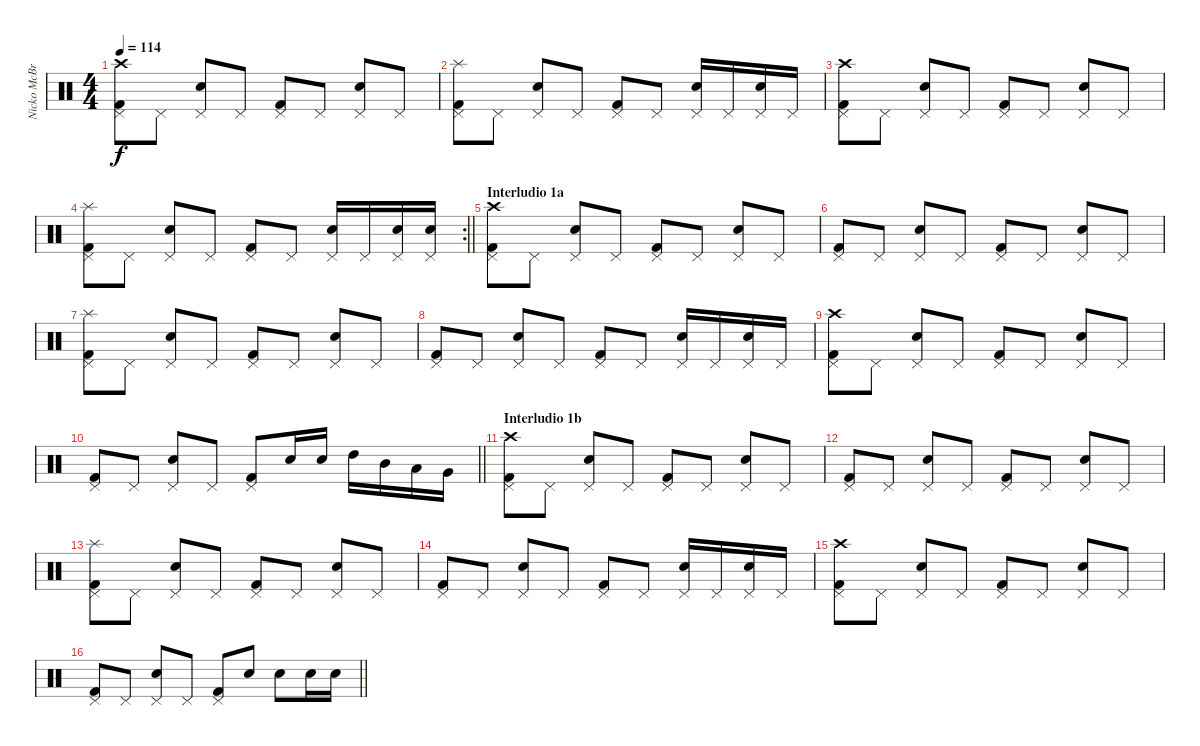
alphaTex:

\track ("Nicko McBrain" "Nicko McBr") {instrument percussion}
\staff {score}
\articulation defaults
\ts (4 4)
\tempo 114
\clef neutral
\ks c
("Kick (hit) 2" "Pedal Hi-Hat (hit)" "Crash high (hit)").8{dy f} "Pedal Hi-Hat (hit)".8 ("Snare (hit) 2" "Pedal Hi-Hat (hit)").8 "Pedal Hi-Hat (hit)".8 ("Kick (hit) 2" "Pedal Hi-Hat (hit)").8 "Pedal Hi-Hat (hit)".8 ("Snare (hit) 2" "Pedal Hi-Hat (hit)").8 "Pedal Hi-Hat (hit)".8 |
("Kick (hit) 2" "Pedal Hi-Hat (hit)" "Splash (hit)").8 "Pedal Hi-Hat (hit)".8 ("Snare (hit) 2" "Pedal Hi-Hat (hit)").8 "Pedal Hi-Hat (hit)".8 ("Kick (hit) 2" "Pedal Hi-Hat (hit)").8 "Pedal Hi-Hat (hit)".8 ("Snare (hit) 2" "Pedal Hi-Hat (hit)").16 "Pedal Hi-Hat (hit)".16 ("Snare (hit) 2" "Pedal Hi-Hat (hit)").16 "Pedal Hi-Hat (hit)".16 |
("Kick (hit) 2" "Pedal Hi-Hat (hit)" "Crash high (hit)").8 "Pedal Hi-Hat (hit)".8 ("Snare (hit) 2" "Pedal Hi-Hat (hit)").8 "Pedal Hi-Hat (hit)".8 ("Kick (hit) 2" "Pedal Hi-Hat (hit)").8 "Pedal Hi-Hat (hit)".8 ("Snare (hit) 2" "Pedal Hi-Hat (hit)").8 "Pedal Hi-Hat (hit)".8 |
\rc 2
\barLineRight lightlight
("Kick (hit) 2" "Pedal Hi-Hat (hit)" "Splash (hit)").8 "Pedal Hi-Hat (hit)".8 ("Snare (hit) 2" "Pedal Hi-Hat (hit)").8 "Pedal Hi-Hat (hit)".8 ("Kick (hit) 2" "Pedal Hi-Hat (hit)").8 "Pedal Hi-Hat (hit)".8 ("Snare (hit) 2" "Pedal Hi-Hat (hit)").16 "Pedal Hi-Hat (hit)".16 ("Snare (hit) 2" "Pedal Hi-Hat (hit)").16 ("Snare (hit) 2" "Pedal Hi-Hat (hit)").16 |
\section ("" "Interludio 1a")
("Kick (hit) 2" "Pedal Hi-Hat (hit)" "Crash high (hit)").8 "Pedal Hi-Hat (hit)".8 ("Snare (hit) 2" "Pedal Hi-Hat (hit)").8 "Pedal Hi-Hat (hit)".8 ("Kick (hit) 2" "Pedal Hi-Hat (hit)").8 "Pedal Hi-Hat (hit)".8 ("Snare (hit) 2" "Pedal Hi-Hat (hit)").8 "Pedal Hi-Hat (hit)".8 |
("Kick (hit) 2" "Pedal Hi-Hat (hit)").8 "Pedal Hi-Hat (hit)".8 ("Snare (hit) 2" "Pedal Hi-Hat (hit)").8 "Pedal Hi-Hat (hit)".8 ("Kick (hit) 2" "Pedal Hi-Hat (hit)").8 "Pedal Hi-Hat (hit)".8 ("Snare (hit) 2" "Pedal Hi-Hat (hit)").8 "Pedal Hi-Hat (hit)".8 |
("Kick (hit) 2" "Pedal Hi-Hat (hit)" "Splash (hit)").8 "Pedal Hi-Hat (hit)".8 ("Snare (hit) 2" "Pedal Hi-Hat (hit)").8 "Pedal Hi-Hat (hit)".8 ("Kick (hit) 2" "Pedal Hi-Hat (hit)").8 "Pedal Hi-Hat (hit)".8 ("Snare (hit) 2" "Pedal Hi-Hat (hit)").8 "Pedal Hi-Hat (hit)".8 |
("Kick (hit) 2" "Pedal Hi-Hat (hit)").8 "Pedal Hi-Hat (hit)".8 ("Snare (hit) 2" "Pedal Hi-Hat (hit)").8 "Pedal Hi-Hat (hit)".8 ("Kick (hit) 2" "Pedal Hi-Hat (hit)").8 "Pedal Hi-Hat (hit)".8 ("Snare (hit) 2" "Pedal Hi-Hat (hit)").16 "Pedal Hi-Hat (hit)".16 ("Snare (hit) 2" "Pedal Hi-Hat (hit)").16 "Pedal Hi-Hat (hit)".16 |
("Kick (hit) 2" "Pedal Hi-Hat (hit)" "Crash high (hit)").8 "Pedal Hi-Hat (hit)".8 ("Snare (hit) 2" "Pedal Hi-Hat (hit)").8 "Pedal Hi-Hat (hit)".8 ("Kick (hit) 2" "Pedal Hi-Hat (hit)").8 "Pedal Hi-Hat (hit)".8 ("Snare (hit) 2" "Pedal Hi-Hat (hit)").8 "Pedal Hi-Hat (hit)".8 |
\barLineRight lightlight
("Kick (hit) 2" "Pedal Hi-Hat (hit)").8 "Pedal Hi-Hat (hit)".8 ("Snare (hit) 2" "Pedal Hi-Hat (hit)").8 "Pedal Hi-Hat (hit)".8 ("Kick (hit) 2" "Pedal Hi-Hat (hit)").8 "Snare (hit) 2".16 "Snare (hit) 2".16 "High Tom (hit)".16 "Mid Tom (hit)".16 "Low Tom (hit)".16 "Very Low Tom (hit)".16 |
\section ("" "Interludio 1b")
("Kick (hit) 2" "Pedal Hi-Hat (hit)" "Crash high (hit)").8 "Pedal Hi-Hat (hit)".8 ("Snare (hit) 2" "Pedal Hi-Hat (hit)").8 "Pedal Hi-Hat (hit)".8 ("Kick (hit) 2" "Pedal Hi-Hat (hit)").8 "Pedal Hi-Hat (hit)".8 ("Snare (hit) 2" "Pedal Hi-Hat (hit)").8 "Pedal Hi-Hat (hit)".8 |
("Kick (hit) 2" "Pedal Hi-Hat (hit)").8 "Pedal Hi-Hat (hit)".8 ("Snare (hit) 2" "Pedal Hi-Hat (hit)").8 "Pedal Hi-Hat (hit)".8 ("Kick (hit) 2" "Pedal Hi-Hat (hit)").8 "Pedal Hi-Hat (hit)".8 ("Snare (hit) 2" "Pedal Hi-Hat (hit)").8 "Pedal Hi-Hat (hit)".8 |
("Kick (hit) 2" "Pedal Hi-Hat (hit)" "Splash (hit)").8 "Pedal Hi-Hat (hit)".8 ("Snare (hit) 2" "Pedal Hi-Hat (hit)").8 "Pedal Hi-Hat (hit)".8 ("Kick (hit) 2" "Pedal Hi-Hat (hit)").8 "Pedal Hi-Hat (hit)".8 ("Snare (hit) 2" "Pedal Hi-Hat (hit)").8 "Pedal Hi-Hat (hit)".8 |
("Kick (hit) 2" "Pedal Hi-Hat (hit)").8 "Pedal Hi-Hat (hit)".8 ("Snare (hit) 2" "Pedal Hi-Hat (hit)").8 "Pedal Hi-Hat (hit)".8 ("Kick (hit) 2" "Pedal Hi-Hat (hit)").8 "Pedal Hi-Hat (hit)".8 ("Snare (hit) 2" "Pedal Hi-Hat (hit)").16 "Pedal Hi-Hat (hit)".16 ("Snare (hit) 2" "Pedal Hi-Hat (hit)").16 "Pedal Hi-Hat (hit)".16 |
("Kick (hit) 2" "Pedal Hi-Hat (hit)" "Crash high (hit)").8 "Pedal Hi-Hat (hit)".8 ("Snare (hit) 2" "Pedal Hi-Hat (hit)").8 "Pedal Hi-Hat (hit)".8 ("Kick (hit) 2" "Pedal Hi-Hat (hit)").8 "Pedal Hi-Hat (hit)".8 ("Snare (hit) 2" "Pedal Hi-Hat (hit)").8 "Pedal Hi-Hat (hit)".8 |
\barLineRight lightlight
("Kick (hit) 2" "Pedal Hi-Hat (hit)").8 "Pedal Hi-Hat (hit)".8 ("Snare (hit) 2" "Pedal Hi-Hat (hit)").8 "Pedal Hi-Hat (hit)".8 ("Kick (hit) 2" "Pedal Hi-Hat (hit)").8 "Snare (hit) 2".8 "Snare (hit) 2".8 "Snare (hit) 2".16 "Snare (hit) 2".16
